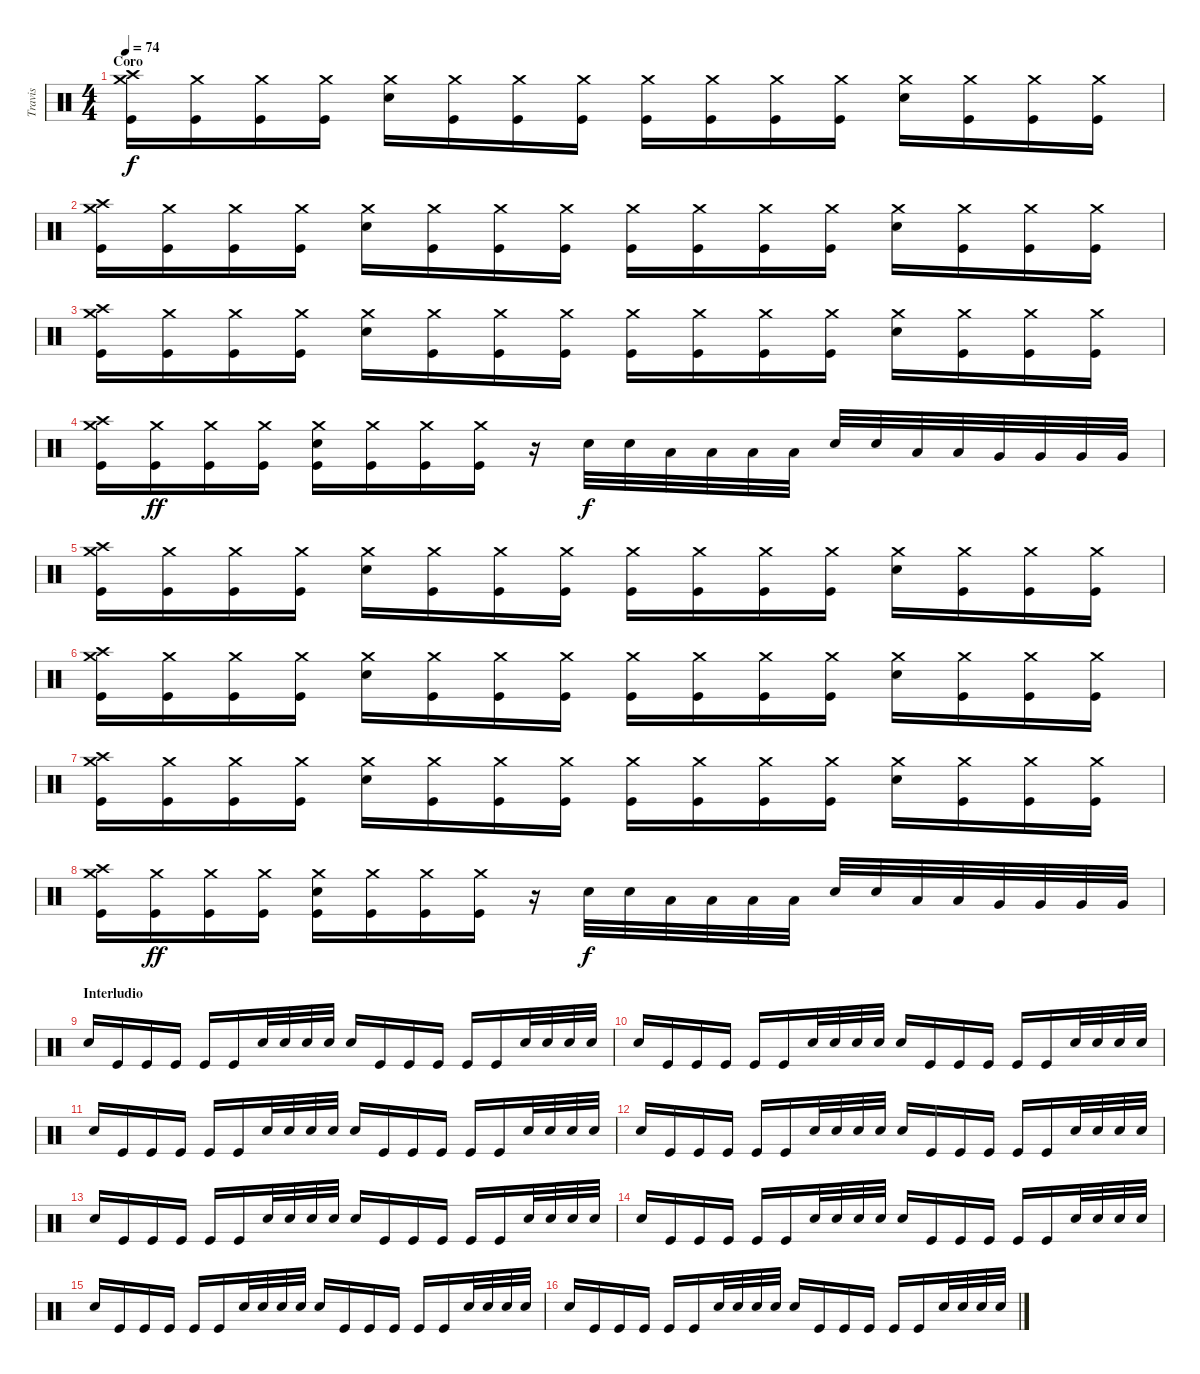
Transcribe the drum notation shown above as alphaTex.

\track ("Travis" "Travis") {instrument percussion}
\staff {score}
\articulation defaults
\ts (4 4)
\section ("" "Coro")
\tempo 74
\clef neutral
\ks c
("Crash high (hit)" "Crash medium (hit)" "Kick (hit)").16{dy f} ("Crash medium (hit)" "Kick (hit)").16 ("Crash medium (hit)" "Kick (hit)").16 ("Crash medium (hit)" "Kick (hit)").16 ("Crash medium (hit)" "Electric Snare (hit)").16 ("Crash medium (hit)" "Kick (hit)").16 ("Crash medium (hit)" "Kick (hit)").16 ("Crash medium (hit)" "Kick (hit)").16 ("Crash medium (hit)" "Kick (hit)").16 ("Crash medium (hit)" "Kick (hit)").16 ("Crash medium (hit)" "Kick (hit)").16 ("Crash medium (hit)" "Kick (hit)").16 ("Crash medium (hit)" "Electric Snare (hit)").16 ("Crash medium (hit)" "Kick (hit)").16 ("Crash medium (hit)" "Kick (hit)").16 ("Crash medium (hit)" "Kick (hit)").16 |
("Crash high (hit)" "Crash medium (hit)" "Kick (hit)").16 ("Crash medium (hit)" "Kick (hit)").16 ("Crash medium (hit)" "Kick (hit)").16 ("Crash medium (hit)" "Kick (hit)").16 ("Crash medium (hit)" "Electric Snare (hit)").16 ("Crash medium (hit)" "Kick (hit)").16 ("Crash medium (hit)" "Kick (hit)").16 ("Crash medium (hit)" "Kick (hit)").16 ("Crash medium (hit)" "Kick (hit)").16 ("Crash medium (hit)" "Kick (hit)").16 ("Crash medium (hit)" "Kick (hit)").16 ("Crash medium (hit)" "Kick (hit)").16 ("Crash medium (hit)" "Electric Snare (hit)").16 ("Crash medium (hit)" "Kick (hit)").16 ("Crash medium (hit)" "Kick (hit)").16 ("Crash medium (hit)" "Kick (hit)").16 |
("Crash high (hit)" "Crash medium (hit)" "Kick (hit)").16 ("Crash medium (hit)" "Kick (hit)").16 ("Crash medium (hit)" "Kick (hit)").16 ("Crash medium (hit)" "Kick (hit)").16 ("Crash medium (hit)" "Electric Snare (hit)").16 ("Crash medium (hit)" "Kick (hit)").16 ("Crash medium (hit)" "Kick (hit)").16 ("Crash medium (hit)" "Kick (hit)").16 ("Crash medium (hit)" "Kick (hit)").16 ("Crash medium (hit)" "Kick (hit)").16 ("Crash medium (hit)" "Kick (hit)").16 ("Crash medium (hit)" "Kick (hit)").16 ("Crash medium (hit)" "Electric Snare (hit)").16 ("Crash medium (hit)" "Kick (hit)").16 ("Crash medium (hit)" "Kick (hit)").16 ("Crash medium (hit)" "Kick (hit)").16 |
("Crash high (hit)" "Crash medium (hit)" "Kick (hit)").16 ("Crash medium (hit)" "Kick (hit)").16{dy ff} ("Crash medium (hit)" "Kick (hit)").16 ("Crash medium (hit)" "Kick (hit)").16 ("Crash medium (hit)" "Electric Snare (hit)" "Kick (hit)").16 ("Crash medium (hit)" "Kick (hit)").16 ("Crash medium (hit)" "Kick (hit)").16 ("Crash medium (hit)" "Kick (hit)").16 r.16 "Electric Snare (hit)".32{dy f} "Electric Snare (hit)".32 "Low Tom (hit)".32 "Low Tom (hit)".32 "Low Tom (hit)".32 "Low Tom (hit)".32 "Electric Snare (hit)".32 "Electric Snare (hit)".32 "Low Tom (hit)".32 "Low Tom (hit)".32 "Very Low Tom (hit)".32 "Very Low Tom (hit)".32 "Very Low Tom (hit)".32 "Very Low Tom (hit)".32 |
("Crash high (hit)" "Crash medium (hit)" "Kick (hit)").16 ("Crash medium (hit)" "Kick (hit)").16 ("Crash medium (hit)" "Kick (hit)").16 ("Crash medium (hit)" "Kick (hit)").16 ("Crash medium (hit)" "Electric Snare (hit)").16 ("Crash medium (hit)" "Kick (hit)").16 ("Crash medium (hit)" "Kick (hit)").16 ("Crash medium (hit)" "Kick (hit)").16 ("Crash medium (hit)" "Kick (hit)").16 ("Crash medium (hit)" "Kick (hit)").16 ("Crash medium (hit)" "Kick (hit)").16 ("Crash medium (hit)" "Kick (hit)").16 ("Crash medium (hit)" "Electric Snare (hit)").16 ("Crash medium (hit)" "Kick (hit)").16 ("Crash medium (hit)" "Kick (hit)").16 ("Crash medium (hit)" "Kick (hit)").16 |
("Crash high (hit)" "Crash medium (hit)" "Kick (hit)").16 ("Crash medium (hit)" "Kick (hit)").16 ("Crash medium (hit)" "Kick (hit)").16 ("Crash medium (hit)" "Kick (hit)").16 ("Crash medium (hit)" "Electric Snare (hit)").16 ("Crash medium (hit)" "Kick (hit)").16 ("Crash medium (hit)" "Kick (hit)").16 ("Crash medium (hit)" "Kick (hit)").16 ("Crash medium (hit)" "Kick (hit)").16 ("Crash medium (hit)" "Kick (hit)").16 ("Crash medium (hit)" "Kick (hit)").16 ("Crash medium (hit)" "Kick (hit)").16 ("Crash medium (hit)" "Electric Snare (hit)").16 ("Crash medium (hit)" "Kick (hit)").16 ("Crash medium (hit)" "Kick (hit)").16 ("Crash medium (hit)" "Kick (hit)").16 |
("Crash high (hit)" "Crash medium (hit)" "Kick (hit)").16 ("Crash medium (hit)" "Kick (hit)").16 ("Crash medium (hit)" "Kick (hit)").16 ("Crash medium (hit)" "Kick (hit)").16 ("Crash medium (hit)" "Electric Snare (hit)").16 ("Crash medium (hit)" "Kick (hit)").16 ("Crash medium (hit)" "Kick (hit)").16 ("Crash medium (hit)" "Kick (hit)").16 ("Crash medium (hit)" "Kick (hit)").16 ("Crash medium (hit)" "Kick (hit)").16 ("Crash medium (hit)" "Kick (hit)").16 ("Crash medium (hit)" "Kick (hit)").16 ("Crash medium (hit)" "Electric Snare (hit)").16 ("Crash medium (hit)" "Kick (hit)").16 ("Crash medium (hit)" "Kick (hit)").16 ("Crash medium (hit)" "Kick (hit)").16 |
("Crash high (hit)" "Crash medium (hit)" "Kick (hit)").16 ("Crash medium (hit)" "Kick (hit)").16{dy ff} ("Crash medium (hit)" "Kick (hit)").16 ("Crash medium (hit)" "Kick (hit)").16 ("Crash medium (hit)" "Electric Snare (hit)" "Kick (hit)").16 ("Crash medium (hit)" "Kick (hit)").16 ("Crash medium (hit)" "Kick (hit)").16 ("Crash medium (hit)" "Kick (hit)").16 r.16 "Electric Snare (hit)".32{dy f} "Electric Snare (hit)".32 "Low Tom (hit)".32 "Low Tom (hit)".32 "Low Tom (hit)".32 "Low Tom (hit)".32 "Electric Snare (hit)".32 "Electric Snare (hit)".32 "Low Tom (hit)".32 "Low Tom (hit)".32 "Very Low Tom (hit)".32 "Very Low Tom (hit)".32 "Very Low Tom (hit)".32 "Very Low Tom (hit)".32 |
\section ("" "Interludio")
"Electric Snare (hit)".16 "Kick (hit)".16 "Kick (hit)".16 "Kick (hit)".16 "Kick (hit)".16 "Kick (hit)".16 "Electric Snare (hit)".32 "Electric Snare (hit)".32 "Electric Snare (hit)".32 "Electric Snare (hit)".32 "Electric Snare (hit)".16 "Kick (hit)".16 "Kick (hit)".16 "Kick (hit)".16 "Kick (hit)".16 "Kick (hit)".16 "Electric Snare (hit)".32 "Electric Snare (hit)".32 "Electric Snare (hit)".32 "Electric Snare (hit)".32 |
"Electric Snare (hit)".16 "Kick (hit)".16 "Kick (hit)".16 "Kick (hit)".16 "Kick (hit)".16 "Kick (hit)".16 "Electric Snare (hit)".32 "Electric Snare (hit)".32 "Electric Snare (hit)".32 "Electric Snare (hit)".32 "Electric Snare (hit)".16 "Kick (hit)".16 "Kick (hit)".16 "Kick (hit)".16 "Kick (hit)".16 "Kick (hit)".16 "Electric Snare (hit)".32 "Electric Snare (hit)".32 "Electric Snare (hit)".32 "Electric Snare (hit)".32 |
"Electric Snare (hit)".16 "Kick (hit)".16 "Kick (hit)".16 "Kick (hit)".16 "Kick (hit)".16 "Kick (hit)".16 "Electric Snare (hit)".32 "Electric Snare (hit)".32 "Electric Snare (hit)".32 "Electric Snare (hit)".32 "Electric Snare (hit)".16 "Kick (hit)".16 "Kick (hit)".16 "Kick (hit)".16 "Kick (hit)".16 "Kick (hit)".16 "Electric Snare (hit)".32 "Electric Snare (hit)".32 "Electric Snare (hit)".32 "Electric Snare (hit)".32 |
"Electric Snare (hit)".16 "Kick (hit)".16 "Kick (hit)".16 "Kick (hit)".16 "Kick (hit)".16 "Kick (hit)".16 "Electric Snare (hit)".32 "Electric Snare (hit)".32 "Electric Snare (hit)".32 "Electric Snare (hit)".32 "Electric Snare (hit)".16 "Kick (hit)".16 "Kick (hit)".16 "Kick (hit)".16 "Kick (hit)".16 "Kick (hit)".16 "Electric Snare (hit)".32 "Electric Snare (hit)".32 "Electric Snare (hit)".32 "Electric Snare (hit)".32 |
"Electric Snare (hit)".16 "Kick (hit)".16 "Kick (hit)".16 "Kick (hit)".16 "Kick (hit)".16 "Kick (hit)".16 "Electric Snare (hit)".32 "Electric Snare (hit)".32 "Electric Snare (hit)".32 "Electric Snare (hit)".32 "Electric Snare (hit)".16 "Kick (hit)".16 "Kick (hit)".16 "Kick (hit)".16 "Kick (hit)".16 "Kick (hit)".16 "Electric Snare (hit)".32 "Electric Snare (hit)".32 "Electric Snare (hit)".32 "Electric Snare (hit)".32 |
"Electric Snare (hit)".16 "Kick (hit)".16 "Kick (hit)".16 "Kick (hit)".16 "Kick (hit)".16 "Kick (hit)".16 "Electric Snare (hit)".32 "Electric Snare (hit)".32 "Electric Snare (hit)".32 "Electric Snare (hit)".32 "Electric Snare (hit)".16 "Kick (hit)".16 "Kick (hit)".16 "Kick (hit)".16 "Kick (hit)".16 "Kick (hit)".16 "Electric Snare (hit)".32 "Electric Snare (hit)".32 "Electric Snare (hit)".32 "Electric Snare (hit)".32 |
"Electric Snare (hit)".16 "Kick (hit)".16 "Kick (hit)".16 "Kick (hit)".16 "Kick (hit)".16 "Kick (hit)".16 "Electric Snare (hit)".32 "Electric Snare (hit)".32 "Electric Snare (hit)".32 "Electric Snare (hit)".32 "Electric Snare (hit)".16 "Kick (hit)".16 "Kick (hit)".16 "Kick (hit)".16 "Kick (hit)".16 "Kick (hit)".16 "Electric Snare (hit)".32 "Electric Snare (hit)".32 "Electric Snare (hit)".32 "Electric Snare (hit)".32 |
"Electric Snare (hit)".16 "Kick (hit)".16 "Kick (hit)".16 "Kick (hit)".16 "Kick (hit)".16 "Kick (hit)".16 "Electric Snare (hit)".32 "Electric Snare (hit)".32 "Electric Snare (hit)".32 "Electric Snare (hit)".32 "Electric Snare (hit)".16 "Kick (hit)".16 "Kick (hit)".16 "Kick (hit)".16 "Kick (hit)".16 "Kick (hit)".16 "Electric Snare (hit)".32 "Electric Snare (hit)".32 "Electric Snare (hit)".32 "Electric Snare (hit)".32
